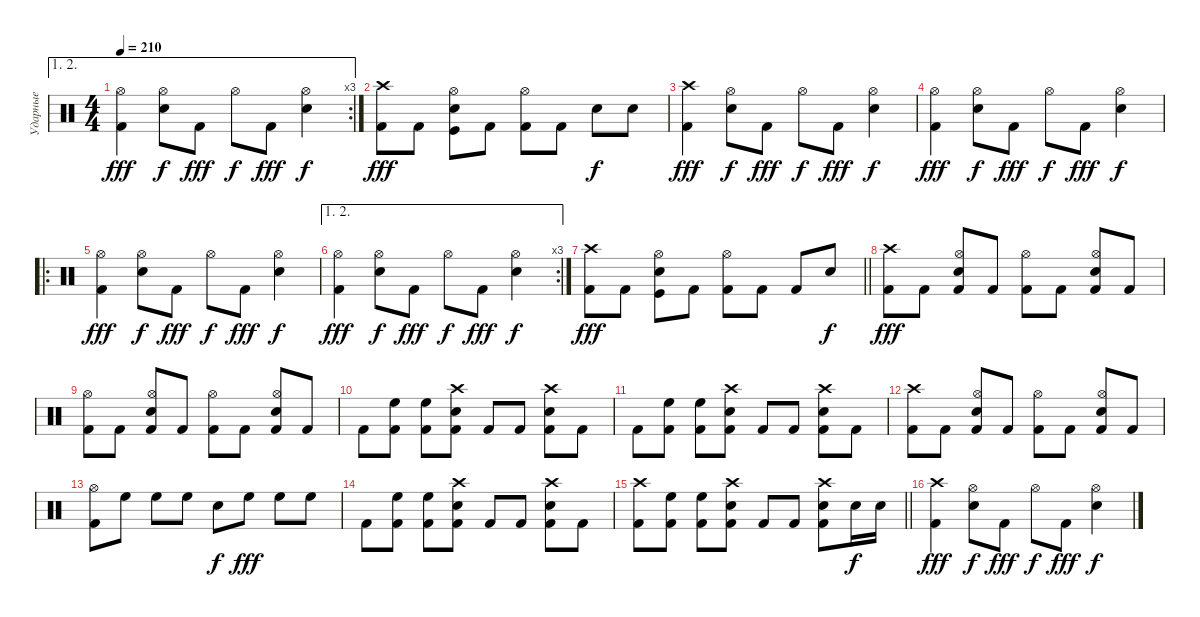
\track ("Ударные" "Ударные") {instrument percussion}
\staff {score}
\articulation defaults
\ae (1 2)
\rc 3
\ts (4 4)
\tempo 210
\clef neutral
\ks c
("Kick (hit) 2" "Hi-Hat (open)").4{dy fff} ("Snare (hit) 2" "Hi-Hat (open)").8{dy f} "Kick (hit) 2".8{dy fff} "Hi-Hat (open)".8{dy f} "Kick (hit) 2".8{dy fff} ("Snare (hit) 2" "Hi-Hat (open)").4{dy f} |
("Kick (hit) 2" "Crash high (hit)").8{dy fff} "Kick (hit) 2".8 ("Kick (hit)" "Snare (hit) 2" "Hi-Hat (open)").8 "Kick (hit) 2".8 ("Kick (hit) 2" "Hi-Hat (open)").8 "Kick (hit) 2".8 "Snare (hit) 2".8{dy f} "Snare (hit) 2".8 |
("Kick (hit) 2" "Crash high (hit)").4{dy fff} ("Snare (hit) 2" "Hi-Hat (open)").8{dy f} "Kick (hit) 2".8{dy fff} "Hi-Hat (open)".8{dy f} "Kick (hit) 2".8{dy fff} ("Snare (hit) 2" "Hi-Hat (open)").4{dy f} |
("Kick (hit) 2" "Hi-Hat (open)").4{dy fff} ("Snare (hit) 2" "Hi-Hat (open)").8{dy f} "Kick (hit) 2".8{dy fff} "Hi-Hat (open)".8{dy f} "Kick (hit) 2".8{dy fff} ("Snare (hit) 2" "Hi-Hat (open)").4{dy f} |
\ro
("Kick (hit) 2" "Hi-Hat (open)").4{dy fff} ("Snare (hit) 2" "Hi-Hat (open)").8{dy f} "Kick (hit) 2".8{dy fff} "Hi-Hat (open)".8{dy f} "Kick (hit) 2".8{dy fff} ("Snare (hit) 2" "Hi-Hat (open)").4{dy f} |
\ae (1 2)
\rc 3
("Kick (hit) 2" "Hi-Hat (open)").4{dy fff} ("Snare (hit) 2" "Hi-Hat (open)").8{dy f} "Kick (hit) 2".8{dy fff} "Hi-Hat (open)".8{dy f} "Kick (hit) 2".8{dy fff} ("Snare (hit) 2" "Hi-Hat (open)").4{dy f} |
\barLineRight lightlight
("Kick (hit) 2" "Crash high (hit)").8{dy fff} "Kick (hit) 2".8 ("Kick (hit)" "Snare (hit) 2" "Hi-Hat (open)").8 "Kick (hit) 2".8 ("Kick (hit) 2" "Hi-Hat (open)").8 "Kick (hit) 2".8 "Kick (hit) 2".8 "Snare (hit) 2".8{dy f} |
("Kick (hit) 2" "Crash high (hit)").8{dy fff} "Kick (hit) 2".8 ("Kick (hit) 2" "Snare (hit) 2" "Hi-Hat (open)").8 "Kick (hit) 2".8 ("Kick (hit) 2" "Hi-Hat (open)").8 "Kick (hit) 2".8 ("Kick (hit) 2" "Snare (hit) 2" "Hi-Hat (open)").8 "Kick (hit) 2".8 |
("Kick (hit) 2" "Hi-Hat (open)").8 "Kick (hit) 2".8 ("Kick (hit) 2" "Snare (hit) 2" "Hi-Hat (open)").8 "Kick (hit) 2".8 ("Kick (hit) 2" "Hi-Hat (open)").8 "Kick (hit) 2".8 ("Kick (hit) 2" "Snare (hit) 2" "Hi-Hat (open)").8 "Kick (hit) 2".8 |
"Kick (hit) 2".8 ("Kick (hit) 2" "High Floor Tom (hit)").8 ("Kick (hit) 2" "High Floor Tom (hit)").8 ("Kick (hit) 2" "Snare (hit) 2" "Crash high (hit)").8 "Kick (hit) 2".8 "Kick (hit) 2".8 ("Kick (hit) 2" "Snare (hit) 2" "Crash high (hit)").8 "Kick (hit) 2".8 |
"Kick (hit) 2".8 ("Kick (hit) 2" "High Floor Tom (hit)").8 ("Kick (hit) 2" "High Floor Tom (hit)").8 ("Kick (hit) 2" "Snare (hit) 2" "Crash high (hit)").8 "Kick (hit) 2".8 "Kick (hit) 2".8 ("Kick (hit) 2" "Snare (hit) 2" "Crash high (hit)").8 "Kick (hit) 2".8 |
("Kick (hit) 2" "Crash high (hit)").8 "Kick (hit) 2".8 ("Kick (hit) 2" "Snare (hit) 2" "Hi-Hat (open)").8 "Kick (hit) 2".8 ("Kick (hit) 2" "Hi-Hat (open)").8 "Kick (hit) 2".8 ("Kick (hit) 2" "Snare (hit) 2" "Hi-Hat (open)").8 "Kick (hit) 2".8 |
("Kick (hit) 2" "Hi-Hat (open)").8 "High Floor Tom (hit)".8 "High Floor Tom (hit)".8 "High Floor Tom (hit)".8 "Snare (hit) 2".8{dy f} "High Floor Tom (hit)".8{dy fff} "High Floor Tom (hit)".8 "High Floor Tom (hit)".8 |
"Kick (hit) 2".8 ("Kick (hit) 2" "High Floor Tom (hit)").8 ("Kick (hit) 2" "High Floor Tom (hit)").8 ("Kick (hit) 2" "Snare (hit) 2" "Crash high (hit)").8 "Kick (hit) 2".8 "Kick (hit) 2".8 ("Kick (hit) 2" "Snare (hit) 2" "Crash high (hit)").8 "Kick (hit) 2".8 |
\barLineRight lightlight
("Kick (hit) 2" "Crash high (hit)").8 ("Kick (hit) 2" "High Floor Tom (hit)").8 ("Kick (hit) 2" "High Floor Tom (hit)").8 ("Kick (hit) 2" "Snare (hit) 2" "Crash high (hit)").8 "Kick (hit) 2".8 "Kick (hit) 2".8 ("Kick (hit) 2" "Snare (hit) 2" "Crash high (hit)").8 "Snare (hit) 2".16{dy f} "Snare (hit) 2".16 |
("Kick (hit) 2" "Crash high (hit)").4{dy fff} ("Snare (hit) 2" "Hi-Hat (open)").8{dy f} "Kick (hit) 2".8{dy fff} "Hi-Hat (open)".8{dy f} "Kick (hit) 2".8{dy fff} ("Snare (hit) 2" "Hi-Hat (open)").4{dy f}
